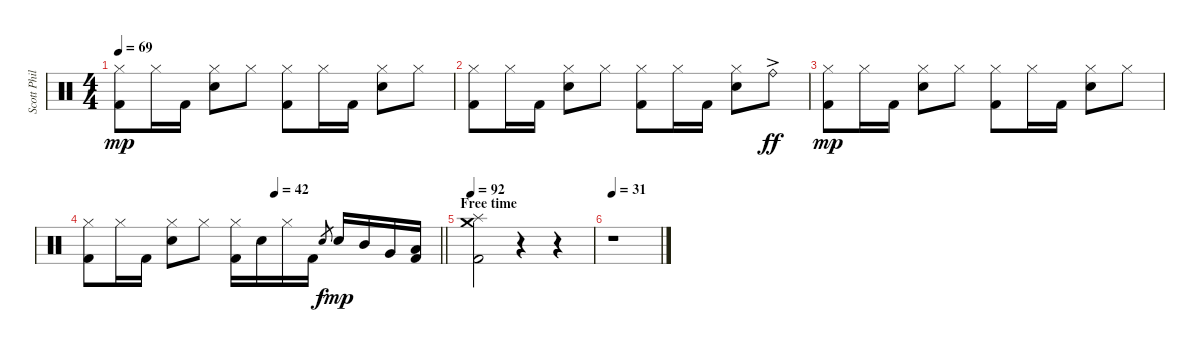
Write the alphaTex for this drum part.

\track ("Scott Phillips" "Scott Phil") {instrument percussion}
\staff {score}
\articulation defaults
\ts (4 4)
\tempo 69
\clef neutral
\ks c
("Hi-Hat (closed)" "Kick (hit) 2").8{dy mp} "Hi-Hat (closed)".16 "Kick (hit) 2".16 ("Hi-Hat (closed)" "Electric Snare (hit)").8 "Hi-Hat (closed)".8 ("Hi-Hat (closed)" "Kick (hit) 2").8 "Hi-Hat (closed)".16 "Kick (hit) 2".16 ("Hi-Hat (closed)" "Electric Snare (hit)").8 "Hi-Hat (closed)".8 |
("Hi-Hat (closed)" "Kick (hit) 2").8 "Hi-Hat (closed)".16 "Kick (hit) 2".16 ("Hi-Hat (closed)" "Electric Snare (hit)").8 "Hi-Hat (closed)".8 ("Hi-Hat (closed)" "Kick (hit) 2").8 "Hi-Hat (closed)".16 "Kick (hit) 2".16 ("Hi-Hat (closed)" "Electric Snare (hit)").8 "Ride (bell)"{ac}.8{dy ff} |
("Hi-Hat (closed)" "Kick (hit) 2").8{dy mp} "Hi-Hat (closed)".16 "Kick (hit) 2".16 ("Hi-Hat (closed)" "Electric Snare (hit)").8 "Hi-Hat (closed)".8 ("Hi-Hat (closed)" "Kick (hit) 2").8 "Hi-Hat (closed)".16 "Kick (hit) 2".16 ("Hi-Hat (closed)" "Electric Snare (hit)").8 "Hi-Hat (closed)".8 |
\tempo (42 0.53125)
\barLineRight lightlight
("Hi-Hat (closed)" "Kick (hit) 2").8 "Hi-Hat (closed)".16 "Kick (hit) 2".16 ("Hi-Hat (closed)" "Electric Snare (hit)").8 "Hi-Hat (closed)".8 ("Hi-Hat (closed)" "Kick (hit) 2").16 "Electric Snare (hit)".16 "Hi-Hat (closed)".16 "Kick (hit) 2".16 "Electric Snare (hit)".8{gr dy f} "Electric Snare (hit)".16{dy mp} "Mid Tom (hit)".16 "Very Low Tom (hit)".16 ("Low Floor Tom (hit)" "Kick (hit) 2").16 |
\section ("" "Free time")
\tempo 92
("Crash medium (hit)" "Splash (hit)" "Kick (hit) 2").2 r.4 r.4 |
\tempo 31
r.1
